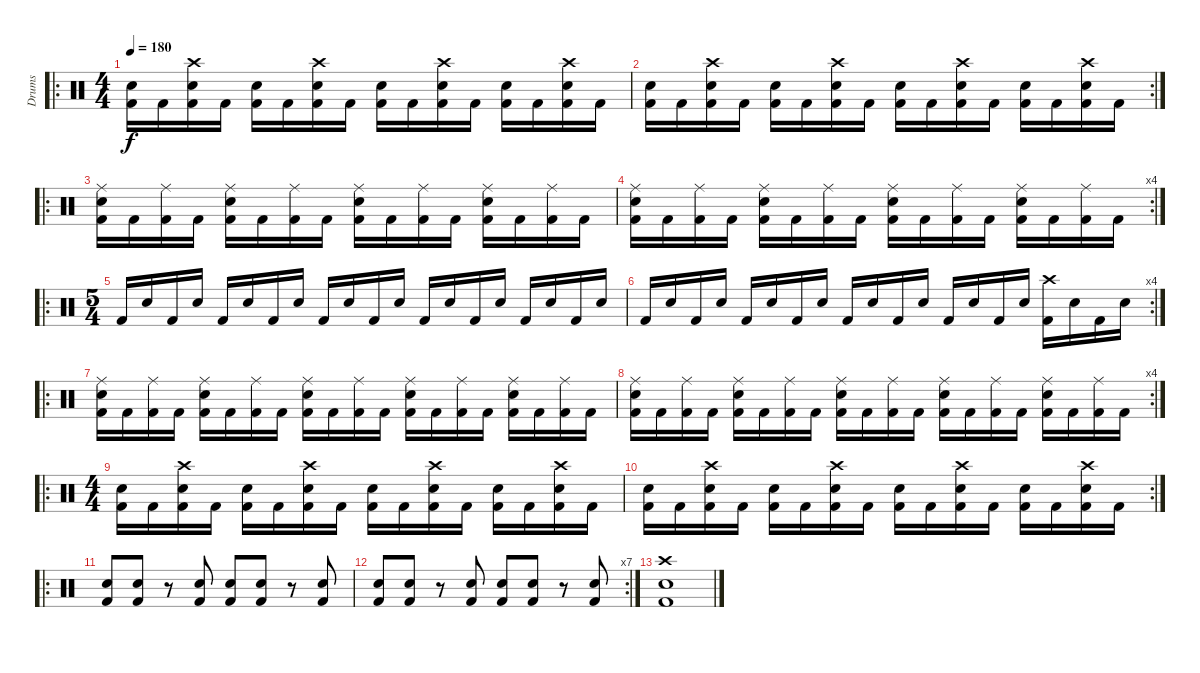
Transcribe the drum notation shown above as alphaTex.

\track ("Drums" "Drums") {instrument percussion}
\staff {score}
\articulation defaults
\ro
\ts (4 4)
\tempo 180
\clef neutral
\ks c
("Electric Snare (hit)" "Kick (hit) 2").16{dy f} "Kick (hit) 2".16 ("Electric Snare (hit)" "Crash high (hit)" "Kick (hit) 2").16 "Kick (hit) 2".16 ("Electric Snare (hit)" "Kick (hit) 2").16 "Kick (hit) 2".16 ("Electric Snare (hit)" "Crash high (hit)" "Kick (hit) 2").16 "Kick (hit) 2".16 ("Electric Snare (hit)" "Kick (hit) 2").16 "Kick (hit) 2".16 ("Electric Snare (hit)" "Crash high (hit)" "Kick (hit) 2").16 "Kick (hit) 2".16 ("Electric Snare (hit)" "Kick (hit) 2").16 "Kick (hit) 2".16 ("Electric Snare (hit)" "Crash high (hit)" "Kick (hit) 2").16 "Kick (hit) 2".16 |
\rc 2
("Electric Snare (hit)" "Kick (hit) 2").16 "Kick (hit) 2".16 ("Electric Snare (hit)" "Crash high (hit)" "Kick (hit) 2").16 "Kick (hit) 2".16 ("Electric Snare (hit)" "Kick (hit) 2").16 "Kick (hit) 2".16 ("Electric Snare (hit)" "Crash high (hit)" "Kick (hit) 2").16 "Kick (hit) 2".16 ("Electric Snare (hit)" "Kick (hit) 2").16 "Kick (hit) 2".16 ("Electric Snare (hit)" "Crash high (hit)" "Kick (hit) 2").16 "Kick (hit) 2".16 ("Electric Snare (hit)" "Kick (hit) 2").16 "Kick (hit) 2".16 ("Electric Snare (hit)" "Crash high (hit)" "Kick (hit) 2").16 "Kick (hit) 2".16 |
\ro
("Electric Snare (hit)" "Ride (middle)" "Kick (hit) 2").16 "Kick (hit) 2".16 ("Ride (middle)" "Kick (hit) 2").16 "Kick (hit) 2".16 ("Electric Snare (hit)" "Ride (middle)" "Kick (hit) 2").16 "Kick (hit) 2".16 ("Ride (middle)" "Kick (hit) 2").16 "Kick (hit) 2".16 ("Electric Snare (hit)" "Ride (middle)" "Kick (hit) 2").16 "Kick (hit) 2".16 ("Ride (middle)" "Kick (hit) 2").16 "Kick (hit) 2".16 ("Electric Snare (hit)" "Ride (middle)" "Kick (hit) 2").16 "Kick (hit) 2".16 ("Ride (middle)" "Kick (hit) 2").16 "Kick (hit) 2".16 |
\rc 4
("Electric Snare (hit)" "Ride (middle)" "Kick (hit) 2").16 "Kick (hit) 2".16 ("Ride (middle)" "Kick (hit) 2").16 "Kick (hit) 2".16 ("Electric Snare (hit)" "Ride (middle)" "Kick (hit) 2").16 "Kick (hit) 2".16 ("Ride (middle)" "Kick (hit) 2").16 "Kick (hit) 2".16 ("Electric Snare (hit)" "Ride (middle)" "Kick (hit) 2").16 "Kick (hit) 2".16 ("Ride (middle)" "Kick (hit) 2").16 "Kick (hit) 2".16 ("Electric Snare (hit)" "Ride (middle)" "Kick (hit) 2").16 "Kick (hit) 2".16 ("Ride (middle)" "Kick (hit) 2").16 "Kick (hit) 2".16 |
\ro
\ts (5 4)
"Kick (hit) 2".16 "Electric Snare (hit)".16 "Kick (hit) 2".16 "Electric Snare (hit)".16 "Kick (hit) 2".16 "Electric Snare (hit)".16 "Kick (hit) 2".16 "Electric Snare (hit)".16 "Kick (hit) 2".16 "Electric Snare (hit)".16 "Kick (hit) 2".16 "Electric Snare (hit)".16 "Kick (hit) 2".16 "Electric Snare (hit)".16 "Kick (hit) 2".16 "Electric Snare (hit)".16 "Kick (hit) 2".16 "Electric Snare (hit)".16 "Kick (hit) 2".16 "Electric Snare (hit)".16 |
\rc 4 "Kick (hit) 2".16 "Electric Snare (hit)".16 "Kick (hit) 2".16 "Electric Snare (hit)".16 "Kick (hit) 2".16 "Electric Snare (hit)".16 "Kick (hit) 2".16 "Electric Snare (hit)".16 "Kick (hit) 2".16 "Electric Snare (hit)".16 "Kick (hit) 2".16 "Electric Snare (hit)".16 "Kick (hit) 2".16 "Electric Snare (hit)".16 "Kick (hit) 2".16 "Electric Snare (hit)".16
("Crash high (hit)" "Kick (hit) 2").16 "Electric Snare (hit)".16 "Kick (hit) 2".16 "Electric Snare (hit)".16 |
\ro
("Electric Snare (hit)" "Ride (middle)" "Kick (hit) 2").16 "Kick (hit) 2".16 ("Ride (middle)" "Kick (hit) 2").16 "Kick (hit) 2".16 ("Electric Snare (hit)" "Ride (middle)" "Kick (hit) 2").16 "Kick (hit) 2".16 ("Ride (middle)" "Kick (hit) 2").16 "Kick (hit) 2".16 ("Electric Snare (hit)" "Ride (middle)" "Kick (hit) 2").16 "Kick (hit) 2".16 ("Ride (middle)" "Kick (hit) 2").16 "Kick (hit) 2".16 ("Electric Snare (hit)" "Ride (middle)" "Kick (hit) 2").16 "Kick (hit) 2".16 ("Ride (middle)" "Kick (hit) 2").16 "Kick (hit) 2".16 ("Electric Snare (hit)" "Ride (middle)" "Kick (hit) 2").16 "Kick (hit) 2".16 ("Ride (middle)" "Kick (hit) 2").16 "Kick (hit) 2".16 |
\rc 4
("Electric Snare (hit)" "Ride (middle)" "Kick (hit) 2").16 "Kick (hit) 2".16 ("Ride (middle)" "Kick (hit) 2").16 "Kick (hit) 2".16 ("Electric Snare (hit)" "Ride (middle)" "Kick (hit) 2").16 "Kick (hit) 2".16 ("Ride (middle)" "Kick (hit) 2").16 "Kick (hit) 2".16 ("Electric Snare (hit)" "Ride (middle)" "Kick (hit) 2").16 "Kick (hit) 2".16 ("Ride (middle)" "Kick (hit) 2").16 "Kick (hit) 2".16 ("Electric Snare (hit)" "Ride (middle)" "Kick (hit) 2").16 "Kick (hit) 2".16 ("Ride (middle)" "Kick (hit) 2").16 "Kick (hit) 2".16 ("Electric Snare (hit)" "Ride (middle)" "Kick (hit) 2").16 "Kick (hit) 2".16 ("Ride (middle)" "Kick (hit) 2").16 "Kick (hit) 2".16 |
\ro
\ts (4 4)
("Electric Snare (hit)" "Kick (hit) 2").16 "Kick (hit) 2".16 ("Electric Snare (hit)" "Crash high (hit)" "Kick (hit) 2").16 "Kick (hit) 2".16 ("Electric Snare (hit)" "Kick (hit) 2").16 "Kick (hit) 2".16 ("Electric Snare (hit)" "Crash high (hit)" "Kick (hit) 2").16 "Kick (hit) 2".16 ("Electric Snare (hit)" "Kick (hit) 2").16 "Kick (hit) 2".16 ("Electric Snare (hit)" "Crash high (hit)" "Kick (hit) 2").16 "Kick (hit) 2".16 ("Electric Snare (hit)" "Kick (hit) 2").16 "Kick (hit) 2".16 ("Electric Snare (hit)" "Crash high (hit)" "Kick (hit) 2").16 "Kick (hit) 2".16 |
\rc 2
("Electric Snare (hit)" "Kick (hit) 2").16 "Kick (hit) 2".16 ("Electric Snare (hit)" "Crash high (hit)" "Kick (hit) 2").16 "Kick (hit) 2".16 ("Electric Snare (hit)" "Kick (hit) 2").16 "Kick (hit) 2".16 ("Electric Snare (hit)" "Crash high (hit)" "Kick (hit) 2").16 "Kick (hit) 2".16 ("Electric Snare (hit)" "Kick (hit) 2").16 "Kick (hit) 2".16 ("Electric Snare (hit)" "Crash high (hit)" "Kick (hit) 2").16 "Kick (hit) 2".16 ("Electric Snare (hit)" "Kick (hit) 2").16 "Kick (hit) 2".16 ("Electric Snare (hit)" "Crash high (hit)" "Kick (hit) 2").16 "Kick (hit) 2".16 |
\ro
("Electric Snare (hit)" "Kick (hit) 2").8 ("Electric Snare (hit)" "Kick (hit) 2").8 r.8 ("Electric Snare (hit)" "Kick (hit) 2").8 ("Electric Snare (hit)" "Kick (hit) 2").8 ("Electric Snare (hit)" "Kick (hit) 2").8 r.8 ("Electric Snare (hit)" "Kick (hit) 2").8 |
\rc 7
("Electric Snare (hit)" "Kick (hit) 2").8 ("Electric Snare (hit)" "Kick (hit) 2").8 r.8 ("Electric Snare (hit)" "Kick (hit) 2").8 ("Electric Snare (hit)" "Kick (hit) 2").8 ("Electric Snare (hit)" "Kick (hit) 2").8 r.8 ("Electric Snare (hit)" "Kick (hit) 2").8 |
("Electric Snare (hit)" "Crash high (hit)" "Kick (hit) 2").1
